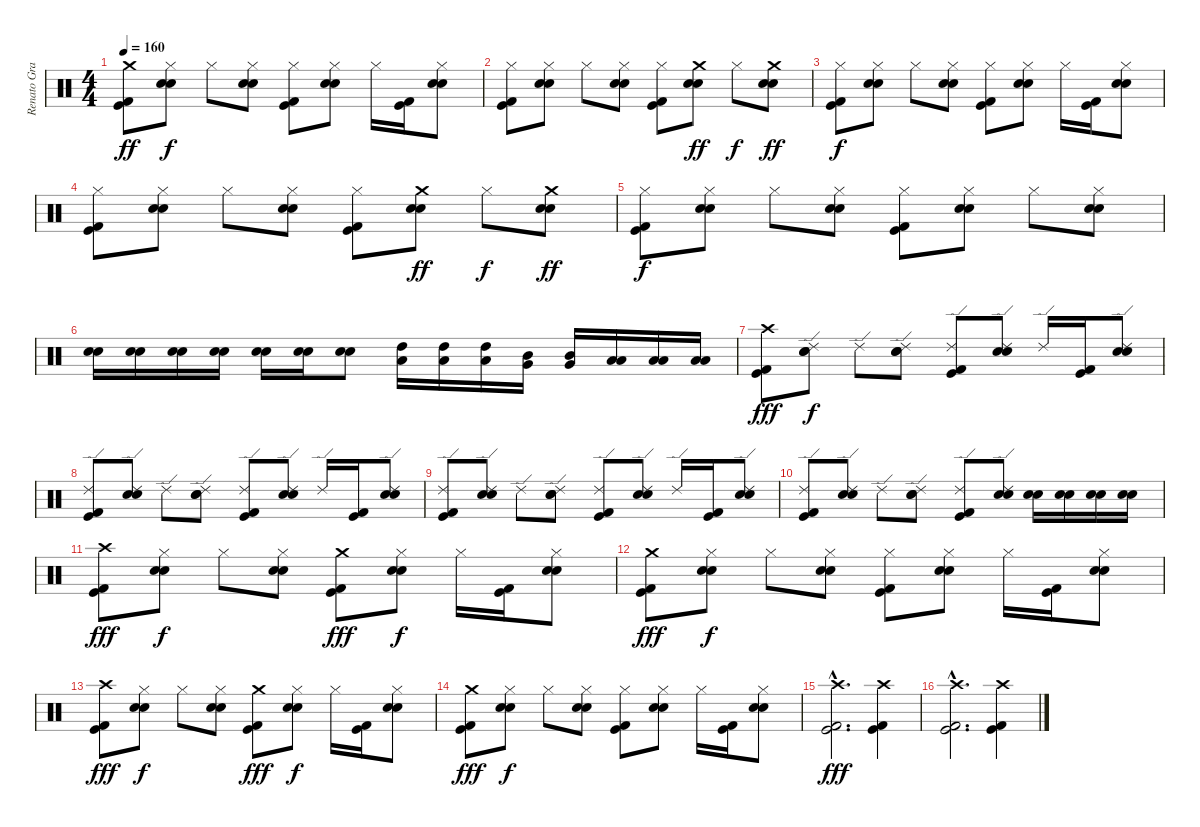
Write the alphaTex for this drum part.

\track ("Renato Graccia" "Renato Gra") {instrument percussion}
\staff {score}
\articulation defaults
\ts (4 4)
\tempo 160
\clef neutral
\ks c
("Crash medium (hit)" "Kick (hit) 2" "Kick (hit)").8{dy ff} ("Hi-Hat (closed)" "Electric Snare (hit)" "Snare (hit) 2").8{dy f} "Hi-Hat (closed)".8 ("Hi-Hat (closed)" "Electric Snare (hit)" "Snare (hit) 2").8 ("Hi-Hat (closed)" "Kick (hit) 2" "Kick (hit)").8 ("Hi-Hat (closed)" "Electric Snare (hit)" "Snare (hit) 2").8 "Hi-Hat (closed)".16 ("Kick (hit) 2" "Kick (hit)").16 ("Hi-Hat (closed)" "Electric Snare (hit)" "Snare (hit) 2").8 |
("Hi-Hat (closed)" "Kick (hit) 2" "Kick (hit)").8 ("Hi-Hat (closed)" "Electric Snare (hit)" "Snare (hit) 2").8 "Hi-Hat (closed)".8 ("Hi-Hat (closed)" "Electric Snare (hit)" "Snare (hit) 2").8 ("Hi-Hat (closed)" "Kick (hit) 2" "Kick (hit)").8 ("Crash medium (hit)" "Electric Snare (hit)" "Snare (hit) 2").8{dy ff} "Hi-Hat (closed)".8{dy f} ("Crash medium (hit)" "Electric Snare (hit)" "Snare (hit) 2").8{dy ff} |
("Hi-Hat (closed)" "Kick (hit) 2" "Kick (hit)").8{dy f} ("Hi-Hat (closed)" "Electric Snare (hit)" "Snare (hit) 2").8 "Hi-Hat (closed)".8 ("Hi-Hat (closed)" "Electric Snare (hit)" "Snare (hit) 2").8 ("Hi-Hat (closed)" "Kick (hit) 2" "Kick (hit)").8 ("Hi-Hat (closed)" "Electric Snare (hit)" "Snare (hit) 2").8 "Hi-Hat (closed)".16 ("Kick (hit) 2" "Kick (hit)").16 ("Hi-Hat (closed)" "Electric Snare (hit)" "Snare (hit) 2").8 |
("Hi-Hat (closed)" "Kick (hit) 2" "Kick (hit)").8 ("Hi-Hat (closed)" "Electric Snare (hit)" "Snare (hit) 2").8 "Hi-Hat (closed)".8 ("Hi-Hat (closed)" "Electric Snare (hit)" "Snare (hit) 2").8 ("Hi-Hat (closed)" "Kick (hit) 2" "Kick (hit)").8 ("Crash medium (hit)" "Electric Snare (hit)" "Snare (hit) 2").8{dy ff} "Hi-Hat (closed)".8{dy f} ("Crash medium (hit)" "Electric Snare (hit)" "Snare (hit) 2").8{dy ff} |
("Hi-Hat (closed)" "Kick (hit) 2" "Kick (hit)").8{dy f} ("Hi-Hat (closed)" "Electric Snare (hit)" "Snare (hit) 2").8 "Hi-Hat (closed)".8 ("Hi-Hat (closed)" "Electric Snare (hit)" "Snare (hit) 2").8 ("Hi-Hat (closed)" "Kick (hit) 2" "Kick (hit)").8 ("Hi-Hat (closed)" "Electric Snare (hit)" "Snare (hit) 2").8 "Hi-Hat (closed)".8 ("Hi-Hat (closed)" "Electric Snare (hit)" "Snare (hit) 2").8 |
("Electric Snare (hit)" "Snare (hit) 2").16 ("Electric Snare (hit)" "Snare (hit) 2").16 ("Electric Snare (hit)" "Snare (hit) 2").16 ("Electric Snare (hit)" "Snare (hit) 2").16 ("Electric Snare (hit)" "Snare (hit) 2").16 ("Electric Snare (hit)" "Snare (hit) 2").16 ("Electric Snare (hit)" "Snare (hit) 2").8 ("High Tom (hit)" "Low Tom (hit)").16 ("High Tom (hit)" "Low Tom (hit)").16 ("High Tom (hit)" "Low Tom (hit)").16 ("Mid Tom (hit)" "Very Low Tom (hit)").16 ("Mid Tom (hit)" "Very Low Tom (hit)").16 ("Low Tom (hit)" "Low Floor Tom (hit)").16 ("Low Tom (hit)" "Low Floor Tom (hit)").16 ("Low Tom (hit)" "Low Floor Tom (hit)").16 |
("Crash high (hit)" "Kick (hit) 2" "Kick (hit)").8{dy fff} ("Ride (edge) 2" "Electric Snare (hit)" "Snare (hit) 2").8{dy f} "Ride (edge) 2".8 ("Ride (edge) 2" "Electric Snare (hit)" "Snare (hit) 2").8 ("Ride (edge) 2" "Kick (hit) 2" "Kick (hit)").8 ("Ride (edge) 2" "Electric Snare (hit)" "Snare (hit) 2").8 "Ride (edge) 2".16 ("Kick (hit) 2" "Kick (hit)").16 ("Ride (edge) 2" "Electric Snare (hit)" "Snare (hit) 2").8 |
("Ride (edge) 2" "Kick (hit) 2" "Kick (hit)").8 ("Ride (edge) 2" "Electric Snare (hit)" "Snare (hit) 2").8 "Ride (edge) 2".8 ("Ride (edge) 2" "Electric Snare (hit)" "Snare (hit) 2").8 ("Ride (edge) 2" "Kick (hit) 2" "Kick (hit)").8 ("Ride (edge) 2" "Electric Snare (hit)" "Snare (hit) 2").8 "Ride (edge) 2".16 ("Kick (hit) 2" "Kick (hit)").16 ("Ride (edge) 2" "Electric Snare (hit)" "Snare (hit) 2").8 |
("Ride (edge) 2" "Kick (hit) 2" "Kick (hit)").8 ("Ride (edge) 2" "Electric Snare (hit)" "Snare (hit) 2").8 "Ride (edge) 2".8 ("Ride (edge) 2" "Electric Snare (hit)" "Snare (hit) 2").8 ("Ride (edge) 2" "Kick (hit) 2" "Kick (hit)").8 ("Ride (edge) 2" "Electric Snare (hit)" "Snare (hit) 2").8 "Ride (edge) 2".16 ("Kick (hit) 2" "Kick (hit)").16 ("Ride (edge) 2" "Electric Snare (hit)" "Snare (hit) 2").8 |
("Ride (edge) 2" "Kick (hit) 2" "Kick (hit)").8 ("Ride (edge) 2" "Electric Snare (hit)" "Snare (hit) 2").8 "Ride (edge) 2".8 ("Ride (edge) 2" "Electric Snare (hit)" "Snare (hit) 2").8 ("Ride (edge) 2" "Kick (hit) 2" "Kick (hit)").8 ("Ride (edge) 2" "Electric Snare (hit)" "Snare (hit) 2").8 ("Electric Snare (hit)" "Snare (hit) 2").16 ("Electric Snare (hit)" "Snare (hit) 2").16 ("Electric Snare (hit)" "Snare (hit) 2").16 ("Electric Snare (hit)" "Snare (hit) 2").16 |
("Crash high (hit)" "Kick (hit) 2" "Kick (hit)").8{dy fff} ("Hi-Hat (closed)" "Electric Snare (hit)" "Snare (hit) 2").8{dy f} "Hi-Hat (closed)".8 ("Hi-Hat (closed)" "Electric Snare (hit)" "Snare (hit) 2").8 ("Crash medium (hit)" "Kick (hit) 2" "Kick (hit)").8{dy fff} ("Hi-Hat (closed)" "Electric Snare (hit)" "Snare (hit) 2").8{dy f} "Hi-Hat (closed)".16 ("Kick (hit) 2" "Kick (hit)").16 ("Hi-Hat (closed)" "Electric Snare (hit)" "Snare (hit) 2").8 |
("Crash medium (hit)" "Kick (hit) 2" "Kick (hit)").8{dy fff} ("Hi-Hat (closed)" "Electric Snare (hit)" "Snare (hit) 2").8{dy f} "Hi-Hat (closed)".8 ("Hi-Hat (closed)" "Electric Snare (hit)" "Snare (hit) 2").8 ("Hi-Hat (closed)" "Kick (hit) 2" "Kick (hit)").8 ("Hi-Hat (closed)" "Electric Snare (hit)" "Snare (hit) 2").8 "Hi-Hat (closed)".16 ("Kick (hit) 2" "Kick (hit)").16 ("Hi-Hat (closed)" "Electric Snare (hit)" "Snare (hit) 2").8 |
("Crash high (hit)" "Kick (hit) 2" "Kick (hit)").8{dy fff} ("Hi-Hat (closed)" "Electric Snare (hit)" "Snare (hit) 2").8{dy f} "Hi-Hat (closed)".8 ("Hi-Hat (closed)" "Electric Snare (hit)" "Snare (hit) 2").8 ("Crash medium (hit)" "Kick (hit) 2" "Kick (hit)").8{dy fff} ("Hi-Hat (closed)" "Electric Snare (hit)" "Snare (hit) 2").8{dy f} "Hi-Hat (closed)".16 ("Kick (hit) 2" "Kick (hit)").16 ("Hi-Hat (closed)" "Electric Snare (hit)" "Snare (hit) 2").8 |
("Crash medium (hit)" "Kick (hit) 2" "Kick (hit)").8{dy fff} ("Hi-Hat (closed)" "Electric Snare (hit)" "Snare (hit) 2").8{dy f} "Hi-Hat (closed)".8 ("Hi-Hat (closed)" "Electric Snare (hit)" "Snare (hit) 2").8 ("Hi-Hat (closed)" "Kick (hit) 2" "Kick (hit)").8 ("Hi-Hat (closed)" "Electric Snare (hit)" "Snare (hit) 2").8 "Hi-Hat (closed)".16 ("Kick (hit) 2" "Kick (hit)").16 ("Hi-Hat (closed)" "Electric Snare (hit)" "Snare (hit) 2").8 |
("Crash high (hit)"{hac} "Kick (hit) 2"{hac} "Kick (hit)"{hac}).2{d dy fff} ("Crash high (hit)" "Kick (hit) 2" "Kick (hit)").4 |
("Crash high (hit)"{hac} "Kick (hit) 2"{hac} "Kick (hit)"{hac}).2{d} ("Crash high (hit)" "Kick (hit) 2" "Kick (hit)").4
